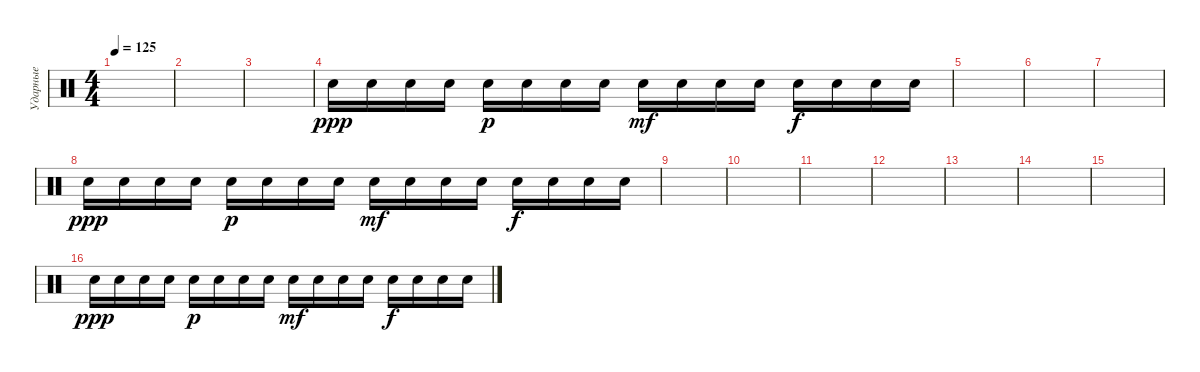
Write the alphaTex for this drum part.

\track ("Ударные" "Ударные") {instrument percussion}
\staff {score}
\articulation defaults
\ts (4 4)
\tempo 125
\clef neutral
\ks c
|
|
|
"Snare (hit) 2".16{dy ppp} "Snare (hit) 2".16 "Snare (hit) 2".16 "Snare (hit) 2".16 "Snare (hit) 2".16{dy p} "Snare (hit) 2".16 "Snare (hit) 2".16 "Snare (hit) 2".16 "Snare (hit) 2".16{dy mf} "Snare (hit) 2".16 "Snare (hit) 2".16 "Snare (hit) 2".16 "Snare (hit) 2".16{dy f} "Snare (hit) 2".16 "Snare (hit) 2".16 "Snare (hit) 2".16 |
|
|
|
"Snare (hit) 2".16{dy ppp} "Snare (hit) 2".16 "Snare (hit) 2".16 "Snare (hit) 2".16 "Snare (hit) 2".16{dy p} "Snare (hit) 2".16 "Snare (hit) 2".16 "Snare (hit) 2".16 "Snare (hit) 2".16{dy mf} "Snare (hit) 2".16 "Snare (hit) 2".16 "Snare (hit) 2".16 "Snare (hit) 2".16{dy f} "Snare (hit) 2".16 "Snare (hit) 2".16 "Snare (hit) 2".16 |
|
|
|
|
|
|
|
"Snare (hit) 2".16{dy ppp} "Snare (hit) 2".16 "Snare (hit) 2".16 "Snare (hit) 2".16 "Snare (hit) 2".16{dy p} "Snare (hit) 2".16 "Snare (hit) 2".16 "Snare (hit) 2".16 "Snare (hit) 2".16{dy mf} "Snare (hit) 2".16 "Snare (hit) 2".16 "Snare (hit) 2".16 "Snare (hit) 2".16{dy f} "Snare (hit) 2".16 "Snare (hit) 2".16 "Snare (hit) 2".16
